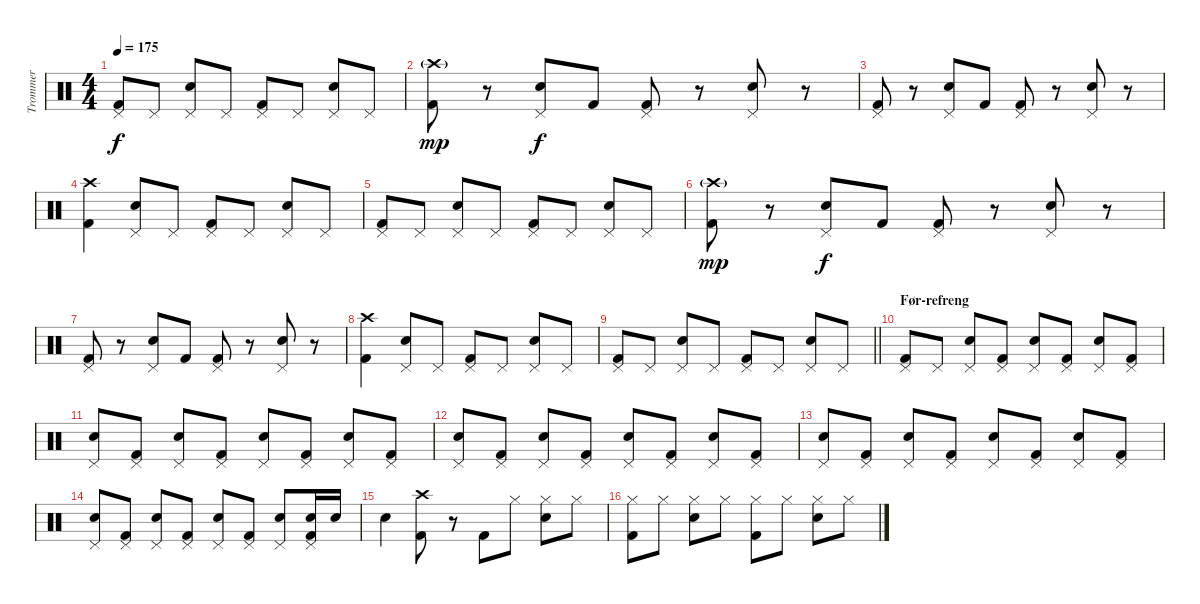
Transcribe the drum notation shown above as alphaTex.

\track ("Trommer" "Trommer") {instrument percussion}
\staff {score}
\articulation defaults
\ts (4 4)
\tempo 175
\clef neutral
\ks c
("Pedal Hi-Hat (hit)" "Kick (hit) 2").8{dy f} "Pedal Hi-Hat (hit)".8 ("Pedal Hi-Hat (hit)" "Electric Snare (hit)").8 "Pedal Hi-Hat (hit)".8 ("Pedal Hi-Hat (hit)" "Kick (hit) 2").8 "Pedal Hi-Hat (hit)".8 ("Pedal Hi-Hat (hit)" "Electric Snare (hit)").8 "Pedal Hi-Hat (hit)".8 |
("Crash high (hit)"{g} "Kick (hit) 2").8{dy mp} r.8 ("Pedal Hi-Hat (hit)" "Electric Snare (hit)").8{dy f} "Kick (hit) 2".8 ("Pedal Hi-Hat (hit)" "Kick (hit) 2").8 r.8 ("Pedal Hi-Hat (hit)" "Electric Snare (hit)").8 r.8 |
("Pedal Hi-Hat (hit)" "Kick (hit) 2").8 r.8 ("Pedal Hi-Hat (hit)" "Electric Snare (hit)").8 "Kick (hit) 2".8 ("Pedal Hi-Hat (hit)" "Kick (hit) 2").8 r.8 ("Pedal Hi-Hat (hit)" "Electric Snare (hit)").8 r.8 |
("Crash high (hit)" "Kick (hit) 2").4 ("Pedal Hi-Hat (hit)" "Electric Snare (hit)").8 "Pedal Hi-Hat (hit)".8 ("Pedal Hi-Hat (hit)" "Kick (hit) 2").8 "Pedal Hi-Hat (hit)".8 ("Pedal Hi-Hat (hit)" "Electric Snare (hit)").8 "Pedal Hi-Hat (hit)".8 |
("Pedal Hi-Hat (hit)" "Kick (hit) 2").8 "Pedal Hi-Hat (hit)".8 ("Pedal Hi-Hat (hit)" "Electric Snare (hit)").8 "Pedal Hi-Hat (hit)".8 ("Pedal Hi-Hat (hit)" "Kick (hit) 2").8 "Pedal Hi-Hat (hit)".8 ("Pedal Hi-Hat (hit)" "Electric Snare (hit)").8 "Pedal Hi-Hat (hit)".8 |
("Crash high (hit)"{g} "Kick (hit) 2").8{dy mp} r.8 ("Pedal Hi-Hat (hit)" "Electric Snare (hit)").8{dy f} "Kick (hit) 2".8 ("Pedal Hi-Hat (hit)" "Kick (hit) 2").8 r.8 ("Pedal Hi-Hat (hit)" "Electric Snare (hit)").8 r.8 |
("Pedal Hi-Hat (hit)" "Kick (hit) 2").8 r.8 ("Pedal Hi-Hat (hit)" "Electric Snare (hit)").8 "Kick (hit) 2".8 ("Pedal Hi-Hat (hit)" "Kick (hit) 2").8 r.8 ("Pedal Hi-Hat (hit)" "Electric Snare (hit)").8 r.8 |
("Crash high (hit)" "Kick (hit) 2").4 ("Pedal Hi-Hat (hit)" "Electric Snare (hit)").8 "Pedal Hi-Hat (hit)".8 ("Pedal Hi-Hat (hit)" "Kick (hit) 2").8 "Pedal Hi-Hat (hit)".8 ("Pedal Hi-Hat (hit)" "Electric Snare (hit)").8 "Pedal Hi-Hat (hit)".8 |
\barLineRight lightlight
("Pedal Hi-Hat (hit)" "Kick (hit) 2").8 "Pedal Hi-Hat (hit)".8 ("Pedal Hi-Hat (hit)" "Electric Snare (hit)").8 "Pedal Hi-Hat (hit)".8 ("Pedal Hi-Hat (hit)" "Kick (hit) 2").8 "Pedal Hi-Hat (hit)".8 ("Pedal Hi-Hat (hit)" "Electric Snare (hit)").8 "Pedal Hi-Hat (hit)".8 |
\section ("" "Før-refreng")
("Pedal Hi-Hat (hit)" "Kick (hit) 2").8 "Pedal Hi-Hat (hit)".8 ("Pedal Hi-Hat (hit)" "Electric Snare (hit)").8 ("Pedal Hi-Hat (hit)" "Kick (hit) 2").8 ("Pedal Hi-Hat (hit)" "Electric Snare (hit)").8 ("Pedal Hi-Hat (hit)" "Kick (hit) 2").8 ("Pedal Hi-Hat (hit)" "Electric Snare (hit)").8 ("Pedal Hi-Hat (hit)" "Kick (hit) 2").8 |
("Pedal Hi-Hat (hit)" "Electric Snare (hit)").8 ("Pedal Hi-Hat (hit)" "Kick (hit) 2").8 ("Pedal Hi-Hat (hit)" "Electric Snare (hit)").8 ("Pedal Hi-Hat (hit)" "Kick (hit) 2").8 ("Pedal Hi-Hat (hit)" "Electric Snare (hit)").8 ("Pedal Hi-Hat (hit)" "Kick (hit) 2").8 ("Pedal Hi-Hat (hit)" "Electric Snare (hit)").8 ("Pedal Hi-Hat (hit)" "Kick (hit) 2").8 |
("Pedal Hi-Hat (hit)" "Electric Snare (hit)").8 ("Pedal Hi-Hat (hit)" "Kick (hit) 2").8 ("Pedal Hi-Hat (hit)" "Electric Snare (hit)").8 ("Pedal Hi-Hat (hit)" "Kick (hit) 2").8 ("Pedal Hi-Hat (hit)" "Electric Snare (hit)").8 ("Pedal Hi-Hat (hit)" "Kick (hit) 2").8 ("Pedal Hi-Hat (hit)" "Electric Snare (hit)").8 ("Pedal Hi-Hat (hit)" "Kick (hit) 2").8 |
("Pedal Hi-Hat (hit)" "Electric Snare (hit)").8 ("Pedal Hi-Hat (hit)" "Kick (hit) 2").8 ("Pedal Hi-Hat (hit)" "Electric Snare (hit)").8 ("Pedal Hi-Hat (hit)" "Kick (hit) 2").8 ("Pedal Hi-Hat (hit)" "Electric Snare (hit)").8 ("Pedal Hi-Hat (hit)" "Kick (hit) 2").8 ("Pedal Hi-Hat (hit)" "Electric Snare (hit)").8 ("Pedal Hi-Hat (hit)" "Kick (hit) 2").8 |
("Pedal Hi-Hat (hit)" "Electric Snare (hit)").8 ("Pedal Hi-Hat (hit)" "Kick (hit) 2").8 ("Pedal Hi-Hat (hit)" "Electric Snare (hit)").8 ("Pedal Hi-Hat (hit)" "Kick (hit) 2").8 ("Pedal Hi-Hat (hit)" "Electric Snare (hit)").8 ("Pedal Hi-Hat (hit)" "Kick (hit) 2").8 ("Pedal Hi-Hat (hit)" "Electric Snare (hit)").8 ("Pedal Hi-Hat (hit)" "Electric Snare (hit)" "Kick (hit) 2").16 "Electric Snare (hit)".16 |
"Electric Snare (hit)".4 ("Crash high (hit)" "Kick (hit) 2").8 r.8 "Kick (hit) 2".8 "Hi-Hat (closed)".8 ("Hi-Hat (closed)" "Electric Snare (hit)").8 "Hi-Hat (closed)".8 |
("Hi-Hat (closed)" "Kick (hit) 2").8 "Hi-Hat (closed)".8 ("Hi-Hat (closed)" "Electric Snare (hit)").8 "Hi-Hat (closed)".8 ("Hi-Hat (closed)" "Kick (hit) 2").8 "Hi-Hat (closed)".8 ("Hi-Hat (closed)" "Electric Snare (hit)").8 "Hi-Hat (closed)".8
